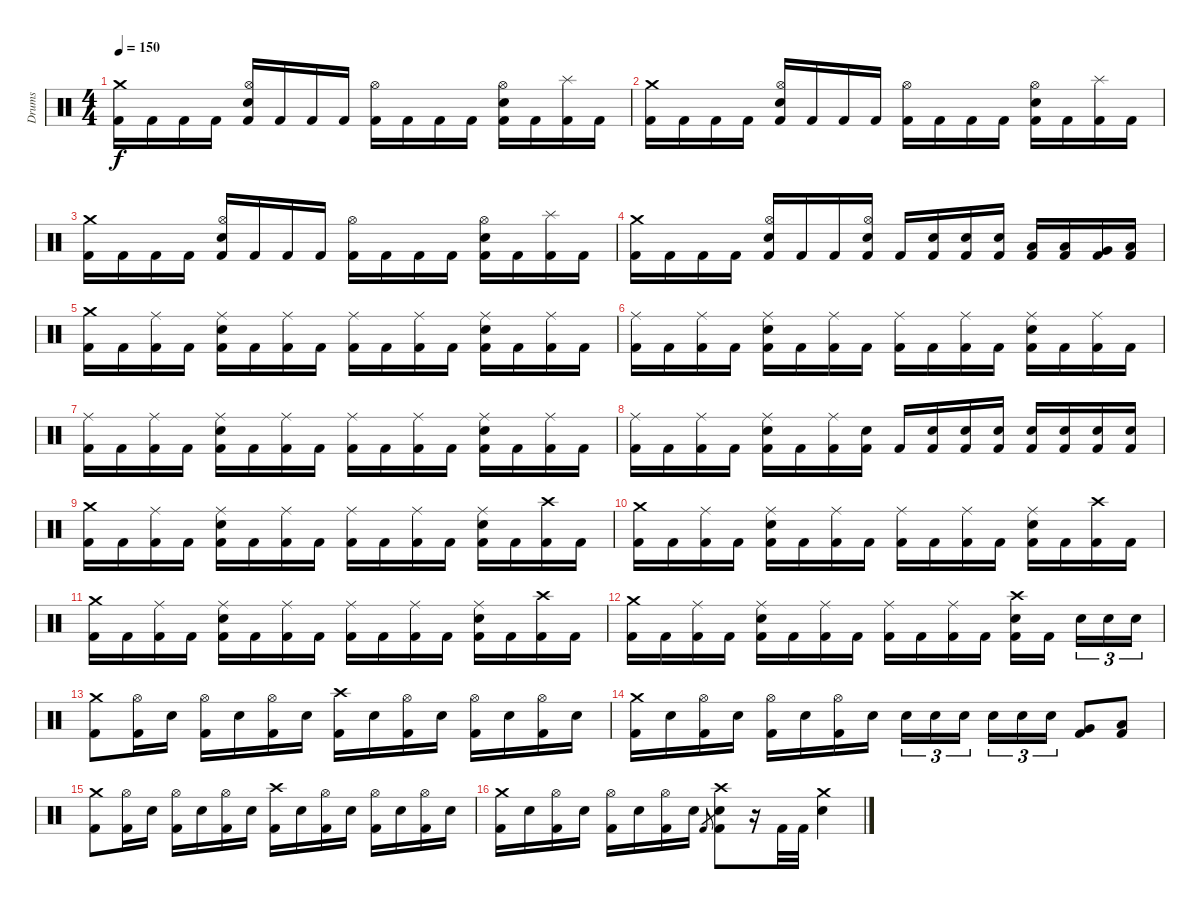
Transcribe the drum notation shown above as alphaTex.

\track ("Drums" "Drums") {instrument percussion}
\staff {score}
\articulation defaults
\ts (4 4)
\tempo 150
\clef neutral
\ks c
("Crash medium (hit)" "Kick (hit) 2").16{dy f} "Kick (hit) 2".16 "Kick (hit) 2".16 "Kick (hit) 2".16 ("Hi-Hat (open)" "Electric Snare (hit)" "Kick (hit) 2").16 "Kick (hit) 2".16 "Kick (hit) 2".16 "Kick (hit) 2".16 ("Hi-Hat (open)" "Kick (hit) 2").16 "Kick (hit) 2".16 "Kick (hit) 2".16 "Kick (hit) 2".16 ("Hi-Hat (open)" "Electric Snare (hit)" "Kick (hit) 2").16 "Kick (hit) 2".16 ("Splash (hit)" "Kick (hit) 2").16 "Kick (hit) 2".16 |
("Crash medium (hit)" "Kick (hit) 2").16 "Kick (hit) 2".16 "Kick (hit) 2".16 "Kick (hit) 2".16 ("Hi-Hat (open)" "Electric Snare (hit)" "Kick (hit) 2").16 "Kick (hit) 2".16 "Kick (hit) 2".16 "Kick (hit) 2".16 ("Hi-Hat (open)" "Kick (hit) 2").16 "Kick (hit) 2".16 "Kick (hit) 2".16 "Kick (hit) 2".16 ("Hi-Hat (open)" "Electric Snare (hit)" "Kick (hit) 2").16 "Kick (hit) 2".16 ("Splash (hit)" "Kick (hit) 2").16 "Kick (hit) 2".16 |
("Crash medium (hit)" "Kick (hit) 2").16 "Kick (hit) 2".16 "Kick (hit) 2".16 "Kick (hit) 2".16 ("Hi-Hat (open)" "Electric Snare (hit)" "Kick (hit) 2").16 "Kick (hit) 2".16 "Kick (hit) 2".16 "Kick (hit) 2".16 ("Hi-Hat (open)" "Kick (hit) 2").16 "Kick (hit) 2".16 "Kick (hit) 2".16 "Kick (hit) 2".16 ("Hi-Hat (open)" "Electric Snare (hit)" "Kick (hit) 2").16 "Kick (hit) 2".16 ("Splash (hit)" "Kick (hit) 2").16 "Kick (hit) 2".16 |
("Crash medium (hit)" "Kick (hit) 2").16 "Kick (hit) 2".16 "Kick (hit) 2".16 "Kick (hit) 2".16 ("Hi-Hat (open)" "Electric Snare (hit)" "Kick (hit) 2").16 "Kick (hit) 2".16 "Kick (hit) 2".16 ("Hi-Hat (open)" "Electric Snare (hit)" "Kick (hit) 2").16 "Kick (hit) 2".16 ("Electric Snare (hit)" "Kick (hit) 2").16 ("Electric Snare (hit)" "Kick (hit) 2").16 ("Electric Snare (hit)" "Kick (hit) 2").16 ("Low Tom (hit)" "Kick (hit) 2").16 ("Low Tom (hit)" "Kick (hit) 2").16 ("Very Low Tom (hit)" "Kick (hit) 2").16 ("Low Floor Tom (hit)" "Kick (hit) 2").16 |
("Crash medium (hit)" "Kick (hit) 2").16 "Kick (hit) 2".16 ("Ride (middle)" "Kick (hit) 2").16 "Kick (hit) 2".16 ("Ride (middle)" "Electric Snare (hit)" "Kick (hit) 2").16 "Kick (hit) 2".16 ("Ride (middle)" "Kick (hit) 2").16 "Kick (hit) 2".16 ("Ride (middle)" "Kick (hit) 2").16 "Kick (hit) 2".16 ("Ride (middle)" "Kick (hit) 2").16 "Kick (hit) 2".16 ("Ride (middle)" "Electric Snare (hit)" "Kick (hit) 2").16 "Kick (hit) 2".16 ("Ride (middle)" "Kick (hit) 2").16 "Kick (hit) 2".16 |
("Ride (middle)" "Kick (hit) 2").16 "Kick (hit) 2".16 ("Ride (middle)" "Kick (hit) 2").16 "Kick (hit) 2".16 ("Ride (middle)" "Electric Snare (hit)" "Kick (hit) 2").16 "Kick (hit) 2".16 ("Ride (middle)" "Kick (hit) 2").16 "Kick (hit) 2".16 ("Ride (middle)" "Kick (hit) 2").16 "Kick (hit) 2".16 ("Ride (middle)" "Kick (hit) 2").16 "Kick (hit) 2".16 ("Ride (middle)" "Electric Snare (hit)" "Kick (hit) 2").16 "Kick (hit) 2".16 ("Ride (middle)" "Kick (hit) 2").16 "Kick (hit) 2".16 |
("Ride (middle)" "Kick (hit) 2").16 "Kick (hit) 2".16 ("Ride (middle)" "Kick (hit) 2").16 "Kick (hit) 2".16 ("Ride (middle)" "Electric Snare (hit)" "Kick (hit) 2").16 "Kick (hit) 2".16 ("Ride (middle)" "Kick (hit) 2").16 "Kick (hit) 2".16 ("Ride (middle)" "Kick (hit) 2").16 "Kick (hit) 2".16 ("Ride (middle)" "Kick (hit) 2").16 "Kick (hit) 2".16 ("Ride (middle)" "Electric Snare (hit)" "Kick (hit) 2").16 "Kick (hit) 2".16 ("Ride (middle)" "Kick (hit) 2").16 "Kick (hit) 2".16 |
("Ride (middle)" "Kick (hit) 2").16 "Kick (hit) 2".16 ("Ride (middle)" "Kick (hit) 2").16 "Kick (hit) 2".16 ("Ride (middle)" "Electric Snare (hit)" "Kick (hit) 2").16 "Kick (hit) 2".16 ("Ride (middle)" "Kick (hit) 2").16 ("Electric Snare (hit)" "Kick (hit) 2").16 "Kick (hit) 2".16 ("Electric Snare (hit)" "Kick (hit) 2").16 ("Electric Snare (hit)" "Kick (hit) 2").16 ("Electric Snare (hit)" "Kick (hit) 2").16 ("Electric Snare (hit)" "Kick (hit) 2").16 ("Electric Snare (hit)" "Kick (hit) 2").16 ("Electric Snare (hit)" "Kick (hit) 2").16 ("Electric Snare (hit)" "Kick (hit) 2").16 |
("Crash medium (hit)" "Kick (hit) 2").16 "Kick (hit) 2".16 ("Ride (middle)" "Kick (hit) 2").16 "Kick (hit) 2".16 ("Ride (middle)" "Electric Snare (hit)" "Kick (hit) 2").16 "Kick (hit) 2".16 ("Ride (middle)" "Kick (hit) 2").16 "Kick (hit) 2".16 ("Ride (middle)" "Kick (hit) 2").16 "Kick (hit) 2".16 ("Ride (middle)" "Kick (hit) 2").16 "Kick (hit) 2".16 ("Ride (middle)" "Electric Snare (hit)" "Kick (hit) 2").16 "Kick (hit) 2".16 ("Crash high (hit)" "Kick (hit) 2").16 "Kick (hit) 2".16 |
("Crash medium (hit)" "Kick (hit) 2").16 "Kick (hit) 2".16 ("Ride (middle)" "Kick (hit) 2").16 "Kick (hit) 2".16 ("Ride (middle)" "Electric Snare (hit)" "Kick (hit) 2").16 "Kick (hit) 2".16 ("Ride (middle)" "Kick (hit) 2").16 "Kick (hit) 2".16 ("Ride (middle)" "Kick (hit) 2").16 "Kick (hit) 2".16 ("Ride (middle)" "Kick (hit) 2").16 "Kick (hit) 2".16 ("Ride (middle)" "Electric Snare (hit)" "Kick (hit) 2").16 "Kick (hit) 2".16 ("Crash high (hit)" "Kick (hit) 2").16 "Kick (hit) 2".16 |
("Crash medium (hit)" "Kick (hit) 2").16 "Kick (hit) 2".16 ("Ride (middle)" "Kick (hit) 2").16 "Kick (hit) 2".16 ("Ride (middle)" "Electric Snare (hit)" "Kick (hit) 2").16 "Kick (hit) 2".16 ("Ride (middle)" "Kick (hit) 2").16 "Kick (hit) 2".16 ("Ride (middle)" "Kick (hit) 2").16 "Kick (hit) 2".16 ("Ride (middle)" "Kick (hit) 2").16 "Kick (hit) 2".16 ("Ride (middle)" "Electric Snare (hit)" "Kick (hit) 2").16 "Kick (hit) 2".16 ("Crash high (hit)" "Kick (hit) 2").16 "Kick (hit) 2".16 |
("Crash medium (hit)" "Kick (hit) 2").16 "Kick (hit) 2".16 ("Ride (middle)" "Kick (hit) 2").16 "Kick (hit) 2".16 ("Ride (middle)" "Electric Snare (hit)" "Kick (hit) 2").16 "Kick (hit) 2".16 ("Ride (middle)" "Kick (hit) 2").16 "Kick (hit) 2".16 ("Ride (middle)" "Kick (hit) 2").16 "Kick (hit) 2".16 ("Ride (middle)" "Kick (hit) 2").16 "Kick (hit) 2".16 ("Crash high (hit)" "Electric Snare (hit)" "Kick (hit) 2").16 "Kick (hit) 2".16 "Electric Snare (hit)".16{tu (3 2)} "Electric Snare (hit)".16{tu (3 2)} "Electric Snare (hit)".16{tu (3 2)} |
\section ("" "")
("Crash medium (hit)" "Kick (hit) 2").8 ("Hi-Hat (open)" "Kick (hit) 2").16 "Electric Snare (hit)".16 ("Hi-Hat (open)" "Kick (hit) 2").16 "Electric Snare (hit)".16 ("Hi-Hat (open)" "Kick (hit) 2").16 "Electric Snare (hit)".16 ("Crash high (hit)" "Kick (hit) 2").16 "Electric Snare (hit)".16 ("Hi-Hat (open)" "Kick (hit) 2").16 "Electric Snare (hit)".16 ("Hi-Hat (open)" "Kick (hit) 2").16 "Electric Snare (hit)".16 ("Hi-Hat (open)" "Kick (hit) 2").16 "Electric Snare (hit)".16 |
("Crash medium (hit)" "Kick (hit) 2").16 "Electric Snare (hit)".16 ("Hi-Hat (open)" "Kick (hit) 2").16 "Electric Snare (hit)".16 ("Hi-Hat (open)" "Kick (hit) 2").16 "Electric Snare (hit)".16 ("Hi-Hat (open)" "Kick (hit) 2").16 "Electric Snare (hit)".16 "Electric Snare (hit)".16{tu (3 2)} "Electric Snare (hit)".16{tu (3 2)} "Electric Snare (hit)".16{tu (3 2)} "Electric Snare (hit)".16{tu (3 2)} "Electric Snare (hit)".16{tu (3 2)} "Electric Snare (hit)".16{tu (3 2)} ("Very Low Tom (hit)" "Kick (hit) 2").8 ("Low Floor Tom (hit)" "Kick (hit) 2").8 |
("Crash medium (hit)" "Kick (hit) 2").8 ("Hi-Hat (open)" "Kick (hit) 2").16 "Electric Snare (hit)".16 ("Hi-Hat (open)" "Kick (hit) 2").16 "Electric Snare (hit)".16 ("Hi-Hat (open)" "Kick (hit) 2").16 "Electric Snare (hit)".16 ("Crash high (hit)" "Kick (hit) 2").16 "Electric Snare (hit)".16 ("Hi-Hat (open)" "Kick (hit) 2").16 "Electric Snare (hit)".16 ("Hi-Hat (open)" "Kick (hit) 2").16 "Electric Snare (hit)".16 ("Hi-Hat (open)" "Kick (hit) 2").16 "Electric Snare (hit)".16 |
("Crash medium (hit)" "Kick (hit) 2").16 "Electric Snare (hit)".16 ("Hi-Hat (open)" "Kick (hit) 2").16 "Electric Snare (hit)".16 ("Hi-Hat (open)" "Kick (hit) 2").16 "Electric Snare (hit)".16 ("Hi-Hat (open)" "Kick (hit) 2").16 "Electric Snare (hit)".16 "Kick (hit) 2".8{gr} ("Crash high (hit)" "Electric Snare (hit)" "Kick (hit) 2").8 r.16 "Kick (hit) 2".32 "Kick (hit) 2".32 ("Crash medium (hit)" "Electric Snare (hit)").4
